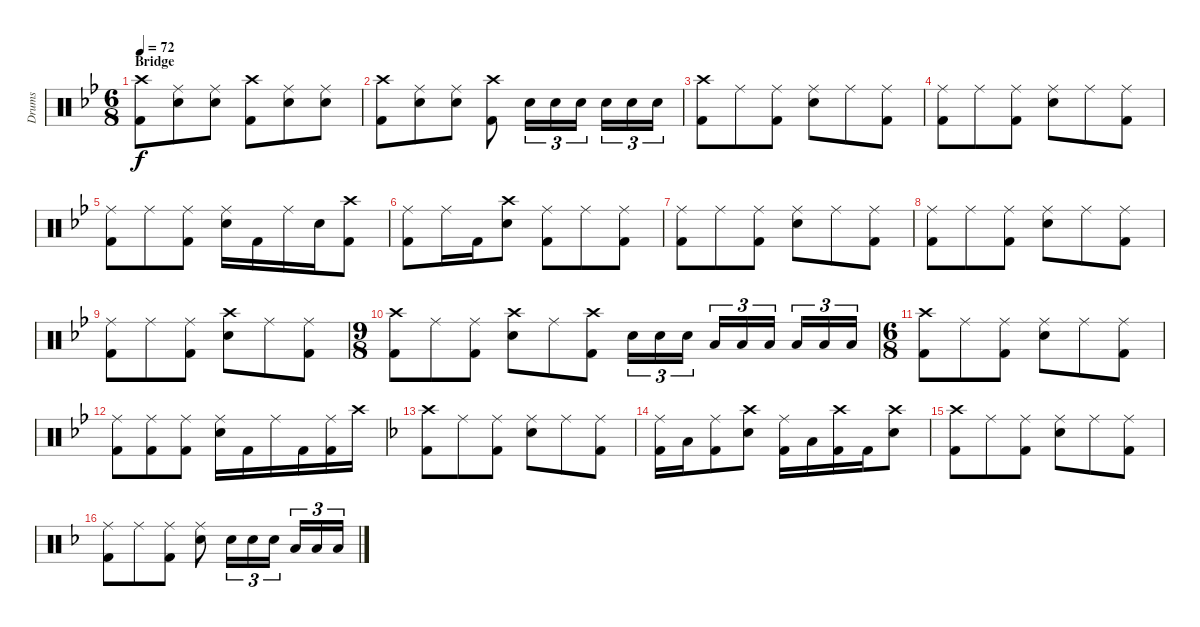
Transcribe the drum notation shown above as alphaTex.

\track ("Drums" "Drums") {instrument percussion}
\staff {score}
\articulation defaults
\ts (6 8)
\section ("" "Bridge")
\tempo 72
\clef neutral
\ks bb
("Crash high (hit)" "Kick (hit) 2").8{dy f} ("Ride (middle)" "Electric Snare (hit)").8 ("Ride (middle)" "Electric Snare (hit)").8 ("Crash high (hit)" "Kick (hit) 2").8 ("Ride (middle)" "Electric Snare (hit)").8 ("Ride (middle)" "Electric Snare (hit)").8 |
("Crash high (hit)" "Kick (hit) 2").8 ("Ride (middle)" "Electric Snare (hit)").8 ("Ride (middle)" "Electric Snare (hit)").8 ("Crash high (hit)" "Kick (hit) 2").8 "Electric Snare (hit)".16{tu (3 2)} "Electric Snare (hit)".16{tu (3 2)} "Electric Snare (hit)".16{tu (3 2) beam splitsecondary} "Electric Snare (hit)".16{tu (3 2)} "Electric Snare (hit)".16{tu (3 2)} "Electric Snare (hit)".16{tu (3 2)} |
("Crash high (hit)" "Kick (hit) 2").8 "Ride (middle)".8 ("Ride (middle)" "Kick (hit) 2").8 ("Ride (middle)" "Electric Snare (hit)").8 "Ride (middle)".8 ("Ride (middle)" "Kick (hit) 2").8 |
("Ride (middle)" "Kick (hit) 2").8 "Ride (middle)".8 ("Ride (middle)" "Kick (hit) 2").8 ("Ride (middle)" "Electric Snare (hit)").8 "Ride (middle)".8 ("Ride (middle)" "Kick (hit) 2").8 |
("Ride (middle)" "Kick (hit) 2").8 "Ride (middle)".8 ("Ride (middle)" "Kick (hit) 2").8 ("Ride (middle)" "Electric Snare (hit)").16 "Kick (hit) 2".16 "Ride (middle)".16 "Electric Snare (hit)".16 ("Crash high (hit)" "Kick (hit) 2").8 |
("Ride (middle)" "Kick (hit) 2").8 "Ride (middle)".16 "Kick (hit) 2".16 ("Crash high (hit)" "Electric Snare (hit)").8 ("Ride (middle)" "Kick (hit) 2").8 "Ride (middle)".8 ("Ride (middle)" "Kick (hit) 2").8 |
("Ride (middle)" "Kick (hit) 2").8 "Ride (middle)".8 ("Ride (middle)" "Kick (hit) 2").8 ("Ride (middle)" "Electric Snare (hit)").8 "Ride (middle)".8 ("Ride (middle)" "Kick (hit) 2").8 |
("Ride (middle)" "Kick (hit) 2").8 "Ride (middle)".8 ("Ride (middle)" "Kick (hit) 2").8 ("Ride (middle)" "Electric Snare (hit)").8 "Ride (middle)".8 ("Ride (middle)" "Kick (hit) 2").8 |
("Ride (middle)" "Kick (hit) 2").8 "Ride (middle)".8 ("Ride (middle)" "Kick (hit) 2").8 ("Crash high (hit)" "Electric Snare (hit)").8 "Ride (middle)".8 ("Ride (middle)" "Kick (hit) 2").8 |
\ts (9 8)
("Crash high (hit)" "Kick (hit) 2").8 "Ride (middle)".8 ("Ride (middle)" "Kick (hit) 2").8 ("Crash high (hit)" "Electric Snare (hit)").8 "Ride (middle)".8 ("Crash high (hit)" "Kick (hit) 2").8 "Electric Snare (hit)".16{tu (3 2)} "Electric Snare (hit)".16{tu (3 2)} "Electric Snare (hit)".16{tu (3 2) beam splitsecondary} "Low Tom (hit)".16{tu (3 2)} "Low Tom (hit)".16{tu (3 2)} "Low Tom (hit)".16{tu (3 2) beam splitsecondary} "Low Floor Tom (hit)".16{tu (3 2)} "Low Floor Tom (hit)".16{tu (3 2)} "Low Floor Tom (hit)".16{tu (3 2)} |
\ts (6 8)
("Crash high (hit)" "Kick (hit) 2").8 "Ride (middle)".8 ("Ride (middle)" "Kick (hit) 2").8 ("Ride (middle)" "Electric Snare (hit)").8 "Ride (middle)".8 ("Ride (middle)" "Kick (hit) 2").8 |
("Ride (middle)" "Kick (hit) 2").8 ("Ride (middle)" "Kick (hit) 2").8 ("Ride (middle)" "Kick (hit) 2").8 ("Ride (middle)" "Electric Snare (hit)").16 "Kick (hit) 2".16 "Ride (middle)".16 "Kick (hit) 2".16 ("Ride (middle)" "Kick (hit) 2").16 "Crash high (hit)".16 |
\ks f
("Crash high (hit)" "Kick (hit) 2").8 "Ride (middle)".8 ("Ride (middle)" "Kick (hit) 2").8 ("Ride (middle)" "Electric Snare (hit)").8 "Ride (middle)".8 ("Ride (middle)" "Kick (hit) 2").8 |
("Ride (middle)" "Kick (hit) 2").16 "Low Tom (hit)".16 ("Ride (middle)" "Kick (hit) 2").8 ("Crash high (hit)" "Electric Snare (hit)").8 ("Ride (middle)" "Kick (hit) 2").16 "Low Tom (hit)".16 ("Crash high (hit)" "Kick (hit) 2").16 "Kick (hit) 2".16 ("Crash high (hit)" "Electric Snare (hit)").8 |
("Crash high (hit)" "Kick (hit) 2").8 "Ride (middle)".8 ("Ride (middle)" "Kick (hit) 2").8 ("Ride (middle)" "Electric Snare (hit)").8 "Ride (middle)".8 ("Ride (middle)" "Kick (hit) 2").8 |
("Ride (middle)" "Kick (hit) 2").8 "Ride (middle)".8 ("Ride (middle)" "Kick (hit) 2").8 ("Ride (middle)" "Electric Snare (hit)").8 "Electric Snare (hit)".16{tu (3 2)} "Electric Snare (hit)".16{tu (3 2)} "Electric Snare (hit)".16{tu (3 2) beam splitsecondary} "Low Tom (hit)".16{tu (3 2)} "Low Tom (hit)".16{tu (3 2)} "Low Tom (hit)".16{tu (3 2)}
